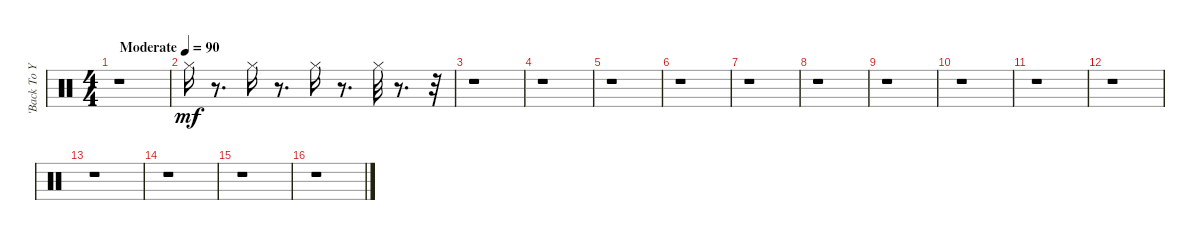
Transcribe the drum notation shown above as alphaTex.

\track ("'Back To Your Heart'" "'Back To Y") {instrument percussion}
\staff {score}
\articulation defaults
\ts (4 4)
\tempo (90 "Moderate")
\clef neutral
\ks c
r.1{dy mf} |
"Hi-Hat (closed)".16 r.8{d} "Hi-Hat (closed)".16 r.8{d} "Hi-Hat (closed)".16 r.8{d} "Hi-Hat (closed)".32 r.8{d} r.32 |
r.1 |
r.1 |
r.1 |
r.1 |
r.1 |
r.1 |
r.1 |
r.1 |
r.1 |
r.1 |
r.1 |
r.1 |
r.1 |
r.1
